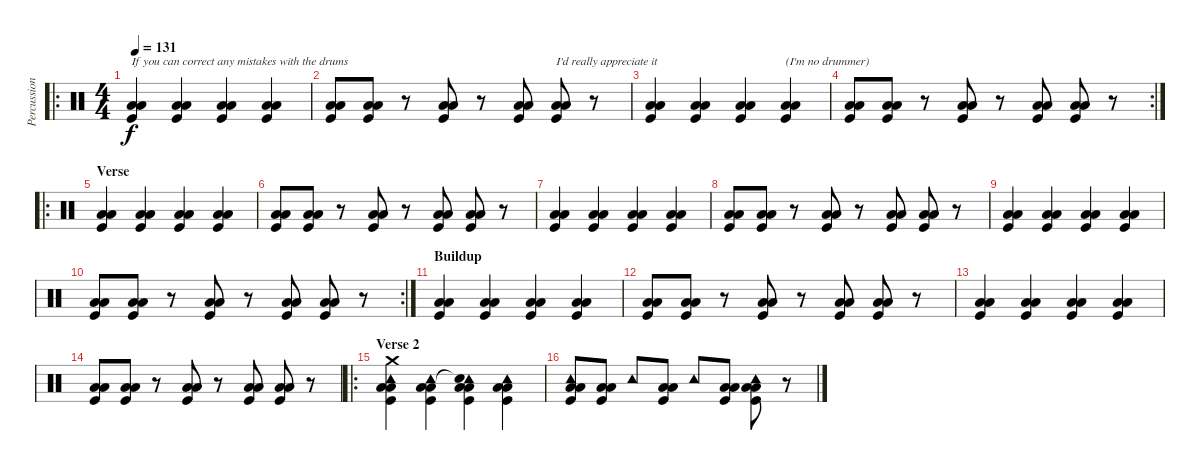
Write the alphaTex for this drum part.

\track ("Percussion" "Percussion") {instrument percussion}
\staff {score}
\articulation defaults
\ro
\ts (4 4)
\tempo 131
\clef neutral
\ks c
("Low Tom (hit)" "Low Floor Tom (hit)" "Kick (hit)").4{txt "If you can correct any mistakes with the drums" dy f} ("Low Tom (hit)" "Low Floor Tom (hit)" "Kick (hit)").4 ("Low Tom (hit)" "Low Floor Tom (hit)" "Kick (hit)").4 ("Low Tom (hit)" "Low Floor Tom (hit)" "Kick (hit)").4 |
("Low Tom (hit)" "Low Floor Tom (hit)" "Kick (hit)").8 ("Low Tom (hit)" "Low Floor Tom (hit)" "Kick (hit)").8 r.8 ("Low Tom (hit)" "Low Floor Tom (hit)" "Kick (hit)").8 r.8 ("Low Tom (hit)" "Low Floor Tom (hit)" "Kick (hit)").8 ("Low Tom (hit)" "Low Floor Tom (hit)" "Kick (hit)").8{txt "I'd really appreciate it"} r.8 |
("Low Tom (hit)" "Low Floor Tom (hit)" "Kick (hit)").4 ("Low Tom (hit)" "Low Floor Tom (hit)" "Kick (hit)").4 ("Low Tom (hit)" "Low Floor Tom (hit)" "Kick (hit)").4 ("Low Tom (hit)" "Low Floor Tom (hit)" "Kick (hit)").4{txt "(I'm no drummer)"} |
\rc 2
("Low Tom (hit)" "Low Floor Tom (hit)" "Kick (hit)").8 ("Low Tom (hit)" "Low Floor Tom (hit)" "Kick (hit)").8 r.8 ("Low Tom (hit)" "Low Floor Tom (hit)" "Kick (hit)").8 r.8 ("Low Tom (hit)" "Low Floor Tom (hit)" "Kick (hit)").8 ("Low Tom (hit)" "Low Floor Tom (hit)" "Kick (hit)").8 r.8 |
\ro
\section ("" "Verse")
("Low Tom (hit)" "Low Floor Tom (hit)" "Kick (hit)").4 ("Low Tom (hit)" "Low Floor Tom (hit)" "Kick (hit)").4 ("Low Tom (hit)" "Low Floor Tom (hit)" "Kick (hit)").4 ("Low Tom (hit)" "Low Floor Tom (hit)" "Kick (hit)").4 |
("Low Tom (hit)" "Low Floor Tom (hit)" "Kick (hit)").8 ("Low Tom (hit)" "Low Floor Tom (hit)" "Kick (hit)").8 r.8 ("Low Tom (hit)" "Low Floor Tom (hit)" "Kick (hit)").8 r.8 ("Low Tom (hit)" "Low Floor Tom (hit)" "Kick (hit)").8 ("Low Tom (hit)" "Low Floor Tom (hit)" "Kick (hit)").8 r.8 |
("Low Tom (hit)" "Low Floor Tom (hit)" "Kick (hit)").4 ("Low Tom (hit)" "Low Floor Tom (hit)" "Kick (hit)").4 ("Low Tom (hit)" "Low Floor Tom (hit)" "Kick (hit)").4 ("Low Tom (hit)" "Low Floor Tom (hit)" "Kick (hit)").4 |
("Low Tom (hit)" "Low Floor Tom (hit)" "Kick (hit)").8 ("Low Tom (hit)" "Low Floor Tom (hit)" "Kick (hit)").8 r.8 ("Low Tom (hit)" "Low Floor Tom (hit)" "Kick (hit)").8 r.8 ("Low Tom (hit)" "Low Floor Tom (hit)" "Kick (hit)").8 ("Low Tom (hit)" "Low Floor Tom (hit)" "Kick (hit)").8 r.8 |
("Low Tom (hit)" "Low Floor Tom (hit)" "Kick (hit)").4 ("Low Tom (hit)" "Low Floor Tom (hit)" "Kick (hit)").4 ("Low Tom (hit)" "Low Floor Tom (hit)" "Kick (hit)").4 ("Low Tom (hit)" "Low Floor Tom (hit)" "Kick (hit)").4 |
\rc 2
("Low Tom (hit)" "Low Floor Tom (hit)" "Kick (hit)").8 ("Low Tom (hit)" "Low Floor Tom (hit)" "Kick (hit)").8 r.8 ("Low Tom (hit)" "Low Floor Tom (hit)" "Kick (hit)").8 r.8 ("Low Tom (hit)" "Low Floor Tom (hit)" "Kick (hit)").8 ("Low Tom (hit)" "Low Floor Tom (hit)" "Kick (hit)").8 r.8 |
\section ("" "Buildup")
("Low Tom (hit)" "Low Floor Tom (hit)" "Kick (hit)").4 ("Low Tom (hit)" "Low Floor Tom (hit)" "Kick (hit)").4 ("Low Tom (hit)" "Low Floor Tom (hit)" "Kick (hit)").4 ("Low Tom (hit)" "Low Floor Tom (hit)" "Kick (hit)").4 |
("Low Tom (hit)" "Low Floor Tom (hit)" "Kick (hit)").8 ("Low Tom (hit)" "Low Floor Tom (hit)" "Kick (hit)").8 r.8 ("Low Tom (hit)" "Low Floor Tom (hit)" "Kick (hit)").8 r.8 ("Low Tom (hit)" "Low Floor Tom (hit)" "Kick (hit)").8 ("Low Tom (hit)" "Low Floor Tom (hit)" "Kick (hit)").8 r.8 |
("Low Tom (hit)" "Low Floor Tom (hit)" "Kick (hit)").4 ("Low Tom (hit)" "Low Floor Tom (hit)" "Kick (hit)").4 ("Low Tom (hit)" "Low Floor Tom (hit)" "Kick (hit)").4 ("Low Tom (hit)" "Low Floor Tom (hit)" "Kick (hit)").4 |
("Low Tom (hit)" "Low Floor Tom (hit)" "Kick (hit)").8 ("Low Tom (hit)" "Low Floor Tom (hit)" "Kick (hit)").8 r.8 ("Low Tom (hit)" "Low Floor Tom (hit)" "Kick (hit)").8 r.8 ("Low Tom (hit)" "Low Floor Tom (hit)" "Kick (hit)").8 ("Low Tom (hit)" "Low Floor Tom (hit)" "Kick (hit)").8 r.8 |
\ro
\section ("" "Verse 2")
("Tambourine (hit)" "Crash medium (hit)" "Low Tom (hit)" "Low Floor Tom (hit)" "Kick (hit)").4 ("Tambourine (hit)" "Low Tom (hit)" "Low Floor Tom (hit)" "Kick (hit)").4 ("Tambourine (hit)" "Snare (hit)"{t} "Low Tom (hit)" "Low Floor Tom (hit)" "Kick (hit)").4 ("Tambourine (hit)" "Low Tom (hit)" "Low Floor Tom (hit)" "Kick (hit)").4 |
("Tambourine (hit)" "Low Tom (hit)" "Low Floor Tom (hit)" "Kick (hit)").8 ("Low Tom (hit)" "Low Floor Tom (hit)" "Kick (hit)").8 "Tambourine (hit)".8 ("Low Tom (hit)" "Low Floor Tom (hit)" "Kick (hit)").8 "Tambourine (hit)".8 ("Low Tom (hit)" "Low Floor Tom (hit)" "Kick (hit)").8 ("Tambourine (hit)" "Low Tom (hit)" "Low Floor Tom (hit)" "Kick (hit)").8 r.8
